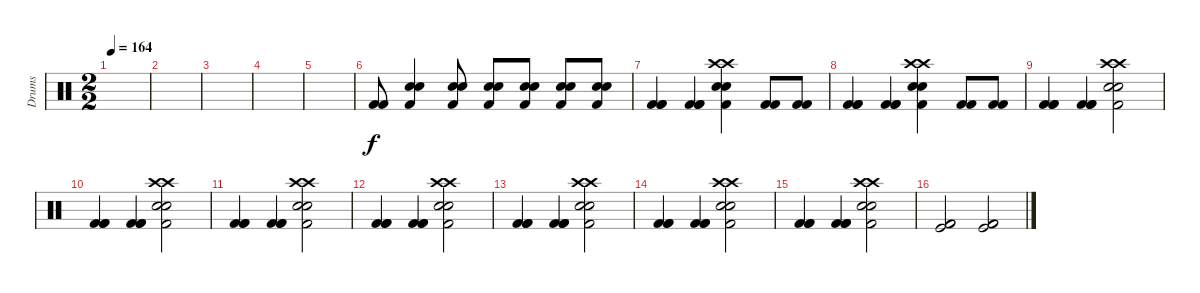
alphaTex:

\track ("Drums" "Drums") {instrument percussion}
\staff {score}
\articulation defaults
\ts (2 2)
\tempo 164
\clef neutral
\ks c
|
|
|
|
|
("Kick (hit) 2" "Kick (hit) 2").8 ("Kick (hit) 2" "Snare (hit) 2" "Snare (hit) 2").4 ("Kick (hit) 2" "Snare (hit) 2" "Snare (hit) 2").8 ("Kick (hit) 2" "Snare (hit) 2" "Snare (hit) 2").8 ("Kick (hit) 2" "Snare (hit) 2" "Snare (hit) 2").8 ("Kick (hit) 2" "Snare (hit) 2" "Snare (hit) 2").8 ("Kick (hit) 2" "Snare (hit) 2" "Snare (hit) 2").8 |
("Kick (hit) 2" "Kick (hit) 2" "Kick (hit) 2").4 ("Kick (hit) 2" "Kick (hit) 2" "Kick (hit) 2").4 ("Crash high (hit)" "Kick (hit) 2" "Snare (hit) 2" "Snare (hit) 2" "Crash high (hit)").4 ("Kick (hit) 2" "Kick (hit) 2").8 ("Kick (hit) 2" "Kick (hit) 2").8 |
("Kick (hit) 2" "Kick (hit) 2" "Kick (hit) 2").4 ("Kick (hit) 2" "Kick (hit) 2" "Kick (hit) 2").4 ("Crash high (hit)" "Kick (hit) 2" "Snare (hit) 2" "Snare (hit) 2" "Crash high (hit)").4 ("Kick (hit) 2" "Kick (hit) 2").8 ("Kick (hit) 2" "Kick (hit) 2").8 |
("Kick (hit) 2" "Kick (hit) 2" "Kick (hit) 2").4 ("Kick (hit) 2" "Kick (hit) 2" "Kick (hit) 2").4 ("Crash high (hit)" "Kick (hit) 2" "Snare (hit) 2" "Snare (hit) 2" "Crash high (hit)").2 |
("Kick (hit) 2" "Kick (hit) 2" "Kick (hit) 2").4 ("Kick (hit) 2" "Kick (hit) 2" "Kick (hit) 2").4 ("Crash high (hit)" "Kick (hit) 2" "Snare (hit) 2" "Snare (hit) 2" "Crash high (hit)").2 |
("Kick (hit) 2" "Kick (hit) 2" "Kick (hit) 2").4 ("Kick (hit) 2" "Kick (hit) 2" "Kick (hit) 2").4 ("Crash high (hit)" "Kick (hit) 2" "Snare (hit) 2" "Snare (hit) 2" "Crash high (hit)").2 |
("Kick (hit) 2" "Kick (hit) 2" "Kick (hit) 2").4 ("Kick (hit) 2" "Kick (hit) 2" "Kick (hit) 2").4 ("Crash high (hit)" "Kick (hit) 2" "Snare (hit) 2" "Snare (hit) 2" "Crash high (hit)").2 |
("Kick (hit) 2" "Kick (hit) 2" "Kick (hit) 2").4 ("Kick (hit) 2" "Kick (hit) 2" "Kick (hit) 2").4 ("Crash high (hit)" "Kick (hit) 2" "Snare (hit) 2" "Snare (hit) 2" "Crash high (hit)").2 |
("Kick (hit) 2" "Kick (hit) 2" "Kick (hit) 2").4 ("Kick (hit) 2" "Kick (hit) 2" "Kick (hit) 2").4 ("Crash high (hit)" "Kick (hit) 2" "Snare (hit) 2" "Snare (hit) 2" "Crash high (hit)").2 |
("Kick (hit) 2" "Kick (hit) 2" "Kick (hit) 2").4 ("Kick (hit) 2" "Kick (hit) 2" "Kick (hit) 2").4 ("Crash high (hit)" "Kick (hit) 2" "Snare (hit) 2" "Snare (hit) 2" "Crash high (hit)").2 |
("Kick (hit) 2" "Kick (hit) 2" "Kick (hit)").2 ("Kick (hit) 2" "Kick (hit) 2" "Kick (hit)").2
